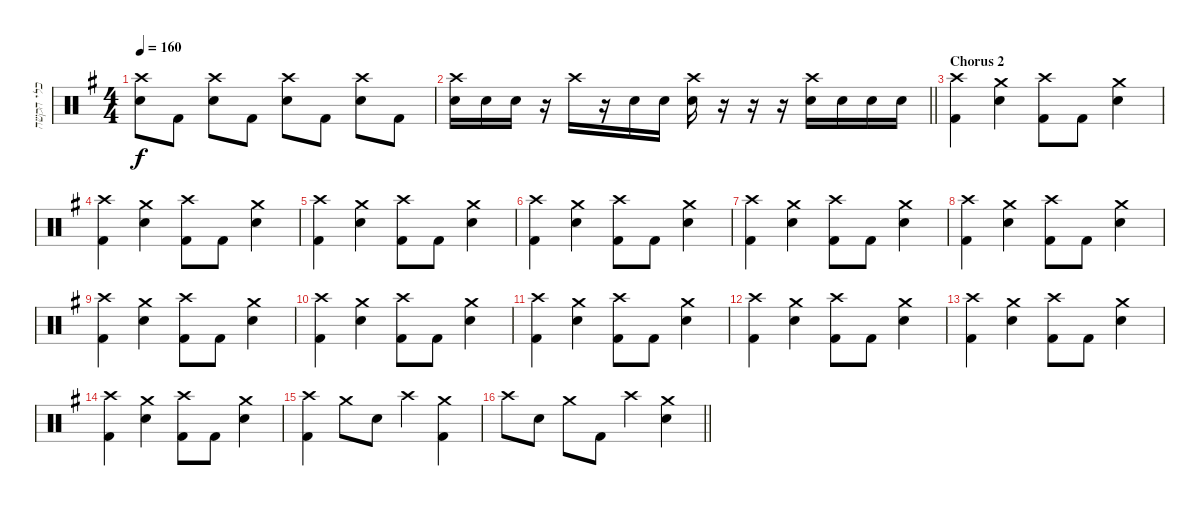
\track ("כלי הקשה" "כלי הקשה") {instrument percussion bank 127}
\staff {score}
\articulation defaults
\ts (4 4)
\tempo 160
\clef neutral
\ks eminor
("Crash high (hit)" "Electric Snare (hit)").8{dy f} "Kick (hit) 2".8 ("Crash high (hit)" "Electric Snare (hit)").8 "Kick (hit) 2".8 ("Crash high (hit)" "Electric Snare (hit)").8 "Kick (hit) 2".8 ("Crash high (hit)" "Electric Snare (hit)").8 "Kick (hit) 2".8 |
\barLineRight lightlight
("Crash high (hit)" "Electric Snare (hit)").16 "Electric Snare (hit)".16 "Electric Snare (hit)".16 r.16 "Crash high (hit)".16 r.16 "Electric Snare (hit)".16 "Electric Snare (hit)".16 ("Crash high (hit)" "Electric Snare (hit)").16 r.16 r.16 r.16 ("Crash high (hit)" "Electric Snare (hit)").16 "Electric Snare (hit)".16 "Electric Snare (hit)".16 "Electric Snare (hit)".16 |
\section ("" "Chorus 2")
("Crash high (hit)" "Kick (hit) 2").4 ("Crash medium (hit)" "Electric Snare (hit)").4 ("Crash high (hit)" "Kick (hit) 2").8 "Kick (hit) 2".8 ("Crash medium (hit)" "Electric Snare (hit)").4 |
("Crash high (hit)" "Kick (hit) 2").4 ("Crash medium (hit)" "Electric Snare (hit)").4 ("Crash high (hit)" "Kick (hit) 2").8 "Kick (hit) 2".8 ("Crash medium (hit)" "Electric Snare (hit)").4 |
("Crash high (hit)" "Kick (hit) 2").4 ("Crash medium (hit)" "Electric Snare (hit)").4 ("Crash high (hit)" "Kick (hit) 2").8 "Kick (hit) 2".8 ("Crash medium (hit)" "Electric Snare (hit)").4 |
("Crash high (hit)" "Kick (hit) 2").4 ("Crash medium (hit)" "Electric Snare (hit)").4 ("Crash high (hit)" "Kick (hit) 2").8 "Kick (hit) 2".8 ("Crash medium (hit)" "Electric Snare (hit)").4 |
("Crash high (hit)" "Kick (hit) 2").4 ("Crash medium (hit)" "Electric Snare (hit)").4 ("Crash high (hit)" "Kick (hit) 2").8 "Kick (hit) 2".8 ("Crash medium (hit)" "Electric Snare (hit)").4 |
("Crash high (hit)" "Kick (hit) 2").4 ("Crash medium (hit)" "Electric Snare (hit)").4 ("Crash high (hit)" "Kick (hit) 2").8 "Kick (hit) 2".8 ("Crash medium (hit)" "Electric Snare (hit)").4 |
("Crash high (hit)" "Kick (hit) 2").4 ("Crash medium (hit)" "Electric Snare (hit)").4 ("Crash high (hit)" "Kick (hit) 2").8 "Kick (hit) 2".8 ("Crash medium (hit)" "Electric Snare (hit)").4 |
("Crash high (hit)" "Kick (hit) 2").4 ("Crash medium (hit)" "Electric Snare (hit)").4 ("Crash high (hit)" "Kick (hit) 2").8 "Kick (hit) 2".8 ("Crash medium (hit)" "Electric Snare (hit)").4 |
("Crash high (hit)" "Kick (hit) 2").4 ("Crash medium (hit)" "Electric Snare (hit)").4 ("Crash high (hit)" "Kick (hit) 2").8 "Kick (hit) 2".8 ("Crash medium (hit)" "Electric Snare (hit)").4 |
("Crash high (hit)" "Kick (hit) 2").4 ("Crash medium (hit)" "Electric Snare (hit)").4 ("Crash high (hit)" "Kick (hit) 2").8 "Kick (hit) 2".8 ("Crash medium (hit)" "Electric Snare (hit)").4 |
("Crash high (hit)" "Kick (hit) 2").4 ("Crash medium (hit)" "Electric Snare (hit)").4 ("Crash high (hit)" "Kick (hit) 2").8 "Kick (hit) 2".8 ("Crash medium (hit)" "Electric Snare (hit)").4 |
("Crash high (hit)" "Kick (hit) 2").4 ("Crash medium (hit)" "Electric Snare (hit)").4 ("Crash high (hit)" "Kick (hit) 2").8 "Kick (hit) 2".8 ("Crash medium (hit)" "Electric Snare (hit)").4 |
("Crash high (hit)" "Kick (hit) 2").4 "Crash medium (hit)".8 "Electric Snare (hit)".8 "Crash high (hit)".4 ("Crash medium (hit)" "Kick (hit) 2").4 |
\barLineRight lightlight "Crash high (hit)".8 "Electric Snare (hit)".8 "Crash medium (hit)".8 "Kick (hit) 2".8 "Crash high (hit)".4
("Crash medium (hit)" "Electric Snare (hit)").4
